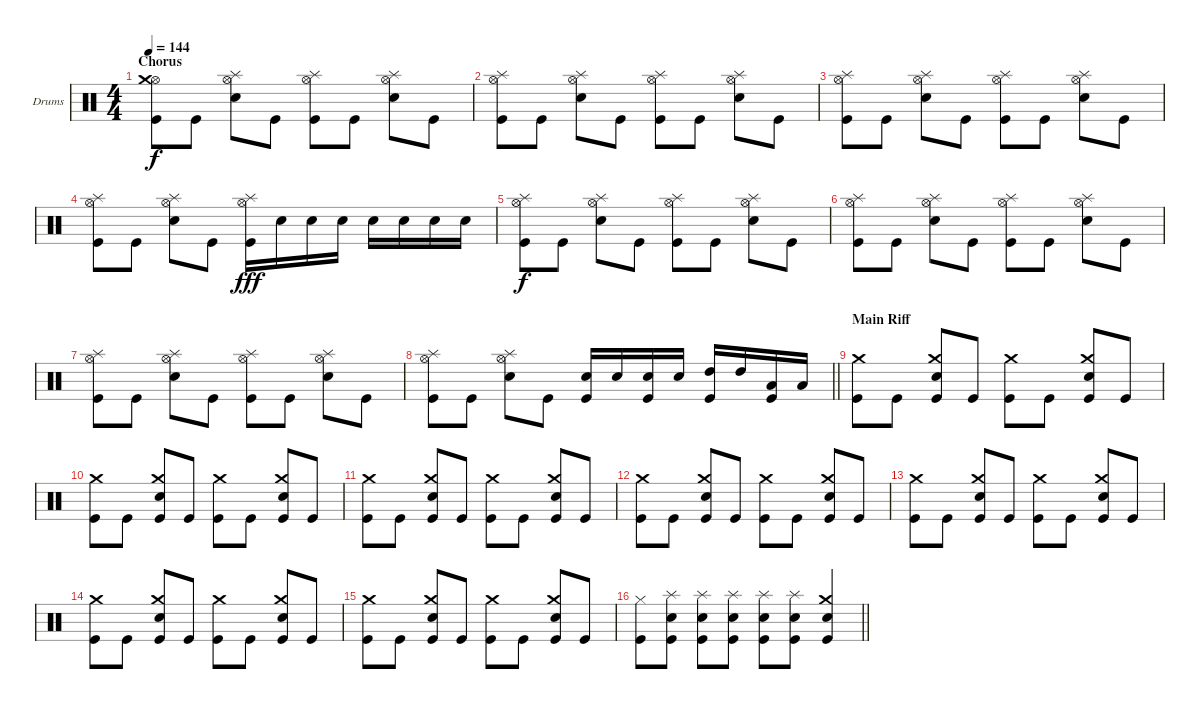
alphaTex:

\bracketExtendMode groupsimilarinstruments
\firstSystemTrackNameOrientation horizontal
\otherSystemsTrackNameOrientation horizontal
\track ("Drumkit" "Drums") {instrument percussion}
\staff {score}
\articulation defaults
\ts (4 4)
\section ("" "Chorus")
\tempo 144
\clef neutral
\ks c
("Kick (hit)" "Hi-Hat (open)" "Crash medium (hit)").8{dy f} "Kick (hit)".8 ("Snare (hit) 2" "Hi-Hat (open)" "Splash (hit)").8 "Kick (hit)".8 ("Kick (hit)" "Hi-Hat (open)" "Splash (hit)").8 "Kick (hit)".8 ("Snare (hit) 2" "Hi-Hat (open)" "Splash (hit)").8 "Kick (hit)".8 |
("Kick (hit)" "Hi-Hat (open)" "Splash (hit)").8 "Kick (hit)".8 ("Snare (hit) 2" "Hi-Hat (open)" "Splash (hit)").8 "Kick (hit)".8 ("Kick (hit)" "Hi-Hat (open)" "Splash (hit)").8 "Kick (hit)".8 ("Snare (hit) 2" "Hi-Hat (open)" "Splash (hit)").8 "Kick (hit)".8 |
("Kick (hit)" "Hi-Hat (open)" "Splash (hit)").8 "Kick (hit)".8 ("Snare (hit) 2" "Hi-Hat (open)" "Splash (hit)").8 "Kick (hit)".8 ("Kick (hit)" "Hi-Hat (open)" "Splash (hit)").8 "Kick (hit)".8 ("Snare (hit) 2" "Hi-Hat (open)" "Splash (hit)").8 "Kick (hit)".8 |
("Kick (hit)" "Hi-Hat (open)" "Splash (hit)").8 "Kick (hit)".8 ("Snare (hit) 2" "Hi-Hat (open)" "Splash (hit)").8 "Kick (hit)".8 ("Kick (hit)" "Hi-Hat (open)" "Splash (hit)").16{dy fff} "Snare (hit) 2".16 "Snare (hit) 2".16 "Snare (hit) 2".16 "Snare (hit) 2".16 "Snare (hit) 2".16 "Snare (hit) 2".16 "Snare (hit) 2".16 |
("Kick (hit)" "Hi-Hat (open)" "Splash (hit)").8{dy f} "Kick (hit)".8 ("Snare (hit) 2" "Hi-Hat (open)" "Splash (hit)").8 "Kick (hit)".8 ("Kick (hit)" "Hi-Hat (open)" "Splash (hit)").8 "Kick (hit)".8 ("Snare (hit) 2" "Hi-Hat (open)" "Splash (hit)").8 "Kick (hit)".8 |
("Kick (hit)" "Hi-Hat (open)" "Splash (hit)").8 "Kick (hit)".8 ("Snare (hit) 2" "Hi-Hat (open)" "Splash (hit)").8 "Kick (hit)".8 ("Kick (hit)" "Hi-Hat (open)" "Splash (hit)").8 "Kick (hit)".8 ("Snare (hit) 2" "Hi-Hat (open)" "Splash (hit)").8 "Kick (hit)".8 |
("Kick (hit)" "Hi-Hat (open)" "Splash (hit)").8 "Kick (hit)".8 ("Snare (hit) 2" "Hi-Hat (open)" "Splash (hit)").8 "Kick (hit)".8 ("Kick (hit)" "Hi-Hat (open)" "Splash (hit)").8 "Kick (hit)".8 ("Snare (hit) 2" "Hi-Hat (open)" "Splash (hit)").8 "Kick (hit)".8 |
\barLineRight lightlight
("Kick (hit)" "Hi-Hat (open)" "Splash (hit)").8 "Kick (hit)".8 ("Snare (hit) 2" "Hi-Hat (open)" "Splash (hit)").8 "Kick (hit)".8 ("Snare (hit) 2" "Kick (hit)").16 "Snare (hit) 2".16 ("Kick (hit)" "Snare (hit) 2").16 "Snare (hit) 2".16 ("Kick (hit)" "High Tom (hit)").16 "High Tom (hit)".16 ("Kick (hit)" "Low Tom (hit)").16 "Low Tom (hit)".16 |
\section ("" "Main Riff")
("Kick (hit)" "Crash medium (hit)").8 "Kick (hit)".8 ("Snare (hit) 2" "Kick (hit)" "Crash medium (hit)").8 "Kick (hit)".8 ("Kick (hit)" "Crash medium (hit)").8 "Kick (hit)".8 ("Snare (hit) 2" "Kick (hit)" "Crash medium (hit)").8 "Kick (hit)".8 |
("Kick (hit)" "Crash medium (hit)").8 "Kick (hit)".8 ("Snare (hit) 2" "Kick (hit)" "Crash medium (hit)").8 "Kick (hit)".8 ("Kick (hit)" "Crash medium (hit)").8 "Kick (hit)".8 ("Snare (hit) 2" "Kick (hit)" "Crash medium (hit)").8 "Kick (hit)".8 |
("Kick (hit)" "Crash medium (hit)").8 "Kick (hit)".8 ("Snare (hit) 2" "Kick (hit)" "Crash medium (hit)").8 "Kick (hit)".8 ("Kick (hit)" "Crash medium (hit)").8 "Kick (hit)".8 ("Snare (hit) 2" "Kick (hit)" "Crash medium (hit)").8 "Kick (hit)".8 |
("Kick (hit)" "Crash medium (hit)").8 "Kick (hit)".8 ("Snare (hit) 2" "Kick (hit)" "Crash medium (hit)").8 "Kick (hit)".8 ("Kick (hit)" "Crash medium (hit)").8 "Kick (hit)".8 ("Snare (hit) 2" "Kick (hit)" "Crash medium (hit)").8 "Kick (hit)".8 |
("Kick (hit)" "Crash medium (hit)").8 "Kick (hit)".8 ("Snare (hit) 2" "Kick (hit)" "Crash medium (hit)").8 "Kick (hit)".8 ("Kick (hit)" "Crash medium (hit)").8 "Kick (hit)".8 ("Snare (hit) 2" "Kick (hit)" "Crash medium (hit)").8 "Kick (hit)".8 |
("Kick (hit)" "Crash medium (hit)").8 "Kick (hit)".8 ("Snare (hit) 2" "Kick (hit)" "Crash medium (hit)").8 "Kick (hit)".8 ("Kick (hit)" "Crash medium (hit)").8 "Kick (hit)".8 ("Snare (hit) 2" "Kick (hit)" "Crash medium (hit)").8 "Kick (hit)".8 |
("Kick (hit)" "Crash medium (hit)").8 "Kick (hit)".8 ("Snare (hit) 2" "Kick (hit)" "Crash medium (hit)").8 "Kick (hit)".8 ("Kick (hit)" "Crash medium (hit)").8 "Kick (hit)".8 ("Snare (hit) 2" "Kick (hit)" "Crash medium (hit)").8 "Kick (hit)".8 |
\barLineRight lightlight
("Hi-Hat (closed)" "Kick (hit)").8 ("Splash (hit)" "Kick (hit)" "Snare (hit) 2").8 ("Splash (hit)" "Kick (hit)" "Snare (hit) 2").8 ("Splash (hit)" "Kick (hit)" "Snare (hit) 2").8 ("Splash (hit)" "Kick (hit)" "Snare (hit) 2").8 ("Splash (hit)" "Kick (hit)" "Snare (hit) 2").8 ("Crash medium (hit)" "Snare (hit) 2" "Kick (hit)").4
